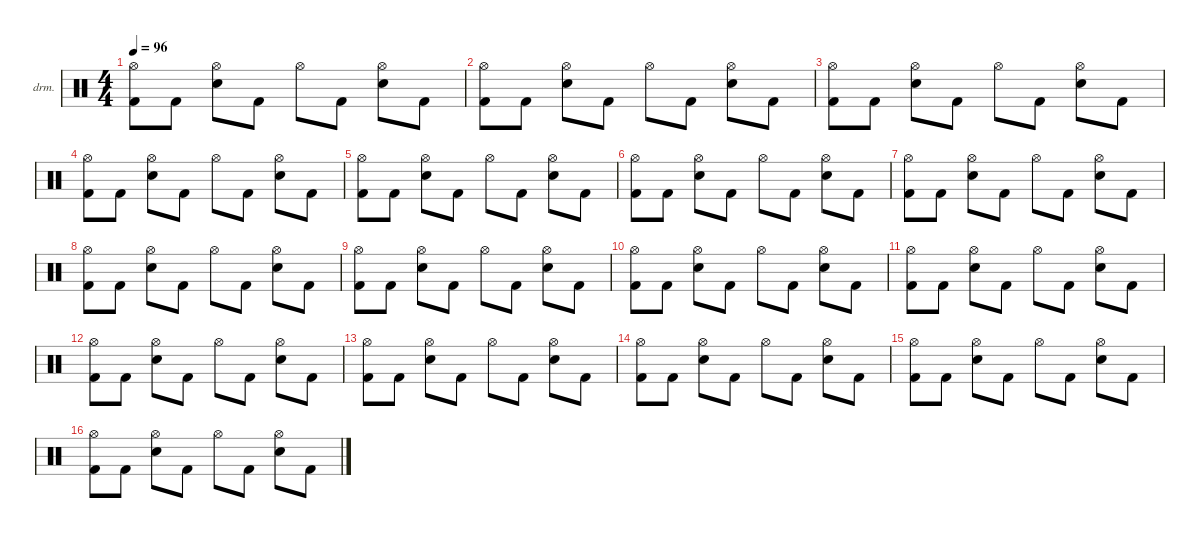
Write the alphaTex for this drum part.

\defaultSystemsLayout 4
\hideDynamics
\bracketExtendMode nobrackets
\firstSystemTrackNameOrientation horizontal
\otherSystemsTrackNameOrientation horizontal
\track ("Drums" "drm.") {instrument percussion}
\staff {score}
\articulation defaults
\ts (4 4)
\tempo 96
\clef neutral
\ks c
("Hi-Hat (open)" "Kick (hit) 2").8{dy f} "Kick (hit) 2".8 ("Hi-Hat (open)" "Snare (hit) 2").8 "Kick (hit) 2".8 "Hi-Hat (open)".8 "Kick (hit) 2".8 ("Hi-Hat (open)" "Snare (hit) 2").8 "Kick (hit) 2".8 |
("Hi-Hat (open)" "Kick (hit) 2").8 "Kick (hit) 2".8 ("Hi-Hat (open)" "Snare (hit) 2").8 "Kick (hit) 2".8 "Hi-Hat (open)".8 "Kick (hit) 2".8 ("Hi-Hat (open)" "Snare (hit) 2").8 "Kick (hit) 2".8 |
("Hi-Hat (open)" "Kick (hit) 2").8 "Kick (hit) 2".8 ("Hi-Hat (open)" "Snare (hit) 2").8 "Kick (hit) 2".8 "Hi-Hat (open)".8 "Kick (hit) 2".8 ("Hi-Hat (open)" "Snare (hit) 2").8 "Kick (hit) 2".8 |
("Hi-Hat (open)" "Kick (hit) 2").8 "Kick (hit) 2".8 ("Hi-Hat (open)" "Snare (hit) 2").8 "Kick (hit) 2".8 "Hi-Hat (open)".8 "Kick (hit) 2".8 ("Hi-Hat (open)" "Snare (hit) 2").8 "Kick (hit) 2".8 |
("Hi-Hat (open)" "Kick (hit) 2").8 "Kick (hit) 2".8 ("Hi-Hat (open)" "Snare (hit) 2").8 "Kick (hit) 2".8 "Hi-Hat (open)".8 "Kick (hit) 2".8 ("Hi-Hat (open)" "Snare (hit) 2").8 "Kick (hit) 2".8 |
("Hi-Hat (open)" "Kick (hit) 2").8 "Kick (hit) 2".8 ("Hi-Hat (open)" "Snare (hit) 2").8 "Kick (hit) 2".8 "Hi-Hat (open)".8 "Kick (hit) 2".8 ("Hi-Hat (open)" "Snare (hit) 2").8 "Kick (hit) 2".8 |
("Hi-Hat (open)" "Kick (hit) 2").8 "Kick (hit) 2".8 ("Hi-Hat (open)" "Snare (hit) 2").8 "Kick (hit) 2".8 "Hi-Hat (open)".8 "Kick (hit) 2".8 ("Hi-Hat (open)" "Snare (hit) 2").8 "Kick (hit) 2".8 |
("Hi-Hat (open)" "Kick (hit) 2").8 "Kick (hit) 2".8 ("Hi-Hat (open)" "Snare (hit) 2").8 "Kick (hit) 2".8 "Hi-Hat (open)".8 "Kick (hit) 2".8 ("Hi-Hat (open)" "Snare (hit) 2").8 "Kick (hit) 2".8 |
("Hi-Hat (open)" "Kick (hit) 2").8 "Kick (hit) 2".8 ("Hi-Hat (open)" "Snare (hit) 2").8 "Kick (hit) 2".8 "Hi-Hat (open)".8 "Kick (hit) 2".8 ("Hi-Hat (open)" "Snare (hit) 2").8 "Kick (hit) 2".8 |
("Hi-Hat (open)" "Kick (hit) 2").8 "Kick (hit) 2".8 ("Hi-Hat (open)" "Snare (hit) 2").8 "Kick (hit) 2".8 "Hi-Hat (open)".8 "Kick (hit) 2".8 ("Hi-Hat (open)" "Snare (hit) 2").8 "Kick (hit) 2".8 |
("Hi-Hat (open)" "Kick (hit) 2").8 "Kick (hit) 2".8 ("Hi-Hat (open)" "Snare (hit) 2").8 "Kick (hit) 2".8 "Hi-Hat (open)".8 "Kick (hit) 2".8 ("Hi-Hat (open)" "Snare (hit) 2").8 "Kick (hit) 2".8 |
("Hi-Hat (open)" "Kick (hit) 2").8 "Kick (hit) 2".8 ("Hi-Hat (open)" "Snare (hit) 2").8 "Kick (hit) 2".8 "Hi-Hat (open)".8 "Kick (hit) 2".8 ("Hi-Hat (open)" "Snare (hit) 2").8 "Kick (hit) 2".8 |
("Hi-Hat (open)" "Kick (hit) 2").8 "Kick (hit) 2".8 ("Hi-Hat (open)" "Snare (hit) 2").8 "Kick (hit) 2".8 "Hi-Hat (open)".8 "Kick (hit) 2".8 ("Hi-Hat (open)" "Snare (hit) 2").8 "Kick (hit) 2".8 |
("Hi-Hat (open)" "Kick (hit) 2").8 "Kick (hit) 2".8 ("Hi-Hat (open)" "Snare (hit) 2").8 "Kick (hit) 2".8 "Hi-Hat (open)".8 "Kick (hit) 2".8 ("Hi-Hat (open)" "Snare (hit) 2").8 "Kick (hit) 2".8 |
("Hi-Hat (open)" "Kick (hit) 2").8 "Kick (hit) 2".8 ("Hi-Hat (open)" "Snare (hit) 2").8 "Kick (hit) 2".8 "Hi-Hat (open)".8 "Kick (hit) 2".8 ("Hi-Hat (open)" "Snare (hit) 2").8 "Kick (hit) 2".8 |
("Hi-Hat (open)" "Kick (hit) 2").8 "Kick (hit) 2".8 ("Hi-Hat (open)" "Snare (hit) 2").8 "Kick (hit) 2".8 "Hi-Hat (open)".8 "Kick (hit) 2".8 ("Hi-Hat (open)" "Snare (hit) 2").8 "Kick (hit) 2".8
